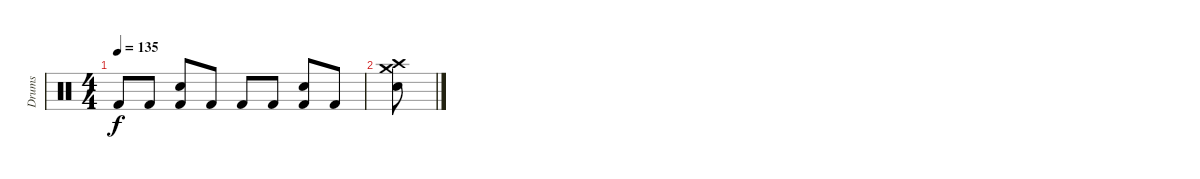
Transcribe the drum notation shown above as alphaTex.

\track ("Drums" "Drums") {instrument percussion}
\staff {score}
\articulation defaults
\ts (4 4)
\tempo 135
\clef neutral
\ks c "Kick (hit) 2".8{dy f} "Kick (hit) 2".8
("Snare (hit) 2" "Kick (hit) 2").8 "Kick (hit) 2".8 "Kick (hit) 2".8 "Kick (hit) 2".8 ("Snare (hit) 2" "Kick (hit) 2").8 "Kick (hit) 2".8 |
("Crash medium (hit)" "Crash high (hit)" "Snare (hit) 2").8
